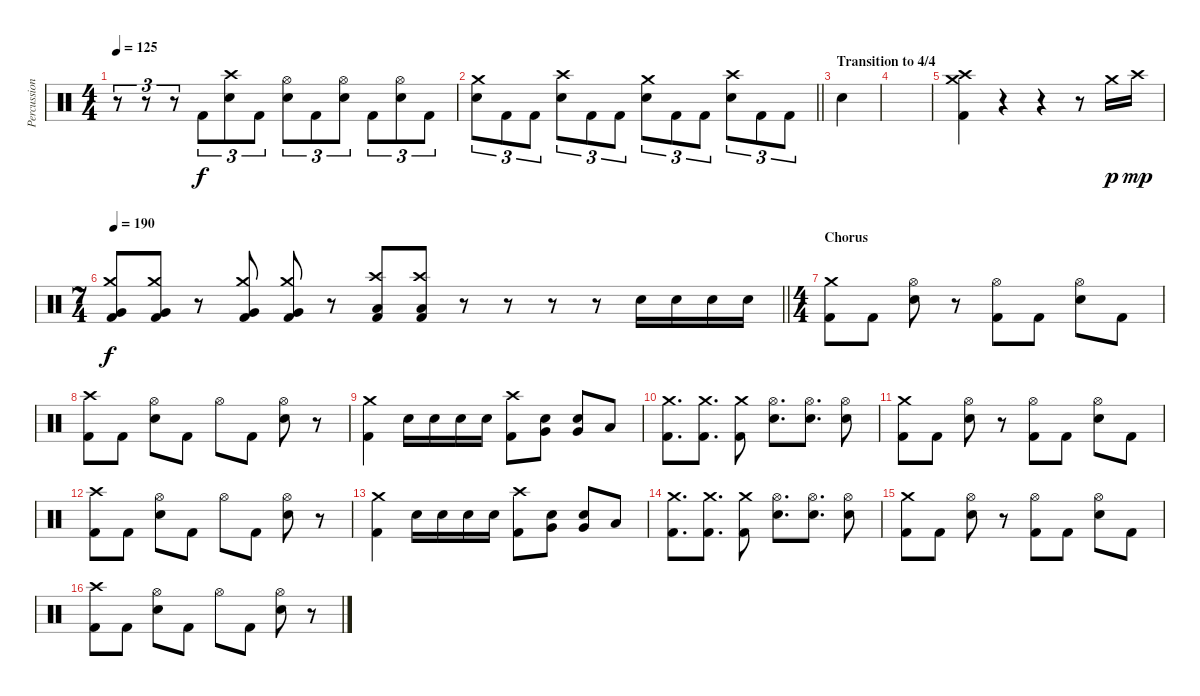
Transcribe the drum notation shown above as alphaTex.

\track ("Percussion" "Percussion") {instrument percussion}
\staff {score}
\articulation defaults
\ts (4 4)
\tempo 125
\clef neutral
\ks c
r.8{tu (3 2) dy f} r.8{tu (3 2)} r.8{tu (3 2)} "Kick (hit) 2".8{tu (3 2)} ("Crash high (hit)" "Electric Snare (hit)").8{tu (3 2)} "Kick (hit) 2".8{tu (3 2)} ("Hi-Hat (open)" "Electric Snare (hit)").8{tu (3 2)} "Kick (hit) 2".8{tu (3 2)} ("Hi-Hat (open)" "Electric Snare (hit)").8{tu (3 2)} "Kick (hit) 2".8{tu (3 2)} ("Hi-Hat (open)" "Electric Snare (hit)").8{tu (3 2)} "Kick (hit) 2".8{tu (3 2)} |
\barLineRight lightlight
("Crash medium (hit)" "Electric Snare (hit)").8{tu (3 2)} "Kick (hit) 2".8{tu (3 2)} "Kick (hit) 2".8{tu (3 2)} ("Crash high (hit)" "Electric Snare (hit)").8{tu (3 2)} "Kick (hit) 2".8{tu (3 2)} "Kick (hit) 2".8{tu (3 2)} ("Crash medium (hit)" "Electric Snare (hit)").8{tu (3 2)} "Kick (hit) 2".8{tu (3 2)} "Kick (hit) 2".8{tu (3 2)} ("Crash high (hit)" "Electric Snare (hit)").8{tu (3 2)} "Kick (hit) 2".8{tu (3 2)} "Kick (hit) 2".8{tu (3 2)} |
\section ("" "Transition to 4/4")
"Electric Snare (hit)".4 |
|
("Crash high (hit)" "Crash medium (hit)" "Kick (hit) 2").4 r.4 r.4 r.8 "Crash medium (hit)".16{dy p} "Crash high (hit)".16{dy mp} |
\ts (7 4)
\tempo 190
\barLineRight lightlight
("Crash medium (hit)" "Very Low Tom (hit)" "Kick (hit) 2").8{dy f} ("Crash medium (hit)" "Very Low Tom (hit)" "Kick (hit) 2").8 r.8 ("Crash medium (hit)" "Very Low Tom (hit)" "Kick (hit) 2").8 ("Crash medium (hit)" "Very Low Tom (hit)" "Kick (hit) 2").8 r.8 ("Crash high (hit)" "Low Floor Tom (hit)" "Kick (hit) 2").8 ("Crash high (hit)" "Low Floor Tom (hit)" "Kick (hit) 2").8 r.8 r.8 r.8 r.8 "Electric Snare (hit)".16 "Electric Snare (hit)".16 "Electric Snare (hit)".16 "Electric Snare (hit)".16 |
\ts (4 4)
\section ("" "Chorus")
("Crash medium (hit)" "Kick (hit) 2").8 "Kick (hit) 2".8 ("Hi-Hat (open)" "Electric Snare (hit)").8 r.8 ("Hi-Hat (open)" "Kick (hit) 2").8 "Kick (hit) 2".8 ("Hi-Hat (open)" "Electric Snare (hit)").8 "Kick (hit) 2".8 |
("Crash high (hit)" "Kick (hit) 2").8 "Kick (hit) 2".8 ("Hi-Hat (open)" "Electric Snare (hit)").8 "Kick (hit) 2".8 "Hi-Hat (open)".8 "Kick (hit) 2".8 ("Hi-Hat (open)" "Electric Snare (hit)").8 r.8 |
("Crash medium (hit)" "Kick (hit) 2").4 "Electric Snare (hit)".16 "Electric Snare (hit)".16 "Electric Snare (hit)".16 "Electric Snare (hit)".16 ("Crash high (hit)" "Kick (hit) 2").8 ("Very Low Tom (hit)" "Electric Snare (hit)").8 ("Very Low Tom (hit)" "Electric Snare (hit)").8 "Low Floor Tom (hit)".8 |
("Crash medium (hit)" "Kick (hit) 2").8{d} ("Crash medium (hit)" "Kick (hit) 2").8{d} ("Crash medium (hit)" "Kick (hit) 2").8 ("Hi-Hat (open)" "Electric Snare (hit)").8{d} ("Hi-Hat (open)" "Electric Snare (hit)").8{d} ("Hi-Hat (open)" "Electric Snare (hit)").8 |
("Crash medium (hit)" "Kick (hit) 2").8 "Kick (hit) 2".8 ("Hi-Hat (open)" "Electric Snare (hit)").8 r.8 ("Hi-Hat (open)" "Kick (hit) 2").8 "Kick (hit) 2".8 ("Hi-Hat (open)" "Electric Snare (hit)").8 "Kick (hit) 2".8 |
("Crash high (hit)" "Kick (hit) 2").8 "Kick (hit) 2".8 ("Hi-Hat (open)" "Electric Snare (hit)").8 "Kick (hit) 2".8 "Hi-Hat (open)".8 "Kick (hit) 2".8 ("Hi-Hat (open)" "Electric Snare (hit)").8 r.8 |
("Crash medium (hit)" "Kick (hit) 2").4 "Electric Snare (hit)".16 "Electric Snare (hit)".16 "Electric Snare (hit)".16 "Electric Snare (hit)".16 ("Crash high (hit)" "Kick (hit) 2").8 ("Very Low Tom (hit)" "Electric Snare (hit)").8 ("Very Low Tom (hit)" "Electric Snare (hit)").8 "Low Floor Tom (hit)".8 |
("Crash medium (hit)" "Kick (hit) 2").8{d} ("Crash medium (hit)" "Kick (hit) 2").8{d} ("Crash medium (hit)" "Kick (hit) 2").8 ("Hi-Hat (open)" "Electric Snare (hit)").8{d} ("Hi-Hat (open)" "Electric Snare (hit)").8{d} ("Hi-Hat (open)" "Electric Snare (hit)").8 |
("Crash medium (hit)" "Kick (hit) 2").8 "Kick (hit) 2".8 ("Hi-Hat (open)" "Electric Snare (hit)").8 r.8 ("Hi-Hat (open)" "Kick (hit) 2").8 "Kick (hit) 2".8 ("Hi-Hat (open)" "Electric Snare (hit)").8 "Kick (hit) 2".8 |
("Crash high (hit)" "Kick (hit) 2").8 "Kick (hit) 2".8 ("Hi-Hat (open)" "Electric Snare (hit)").8 "Kick (hit) 2".8 "Hi-Hat (open)".8 "Kick (hit) 2".8 ("Hi-Hat (open)" "Electric Snare (hit)").8 r.8
